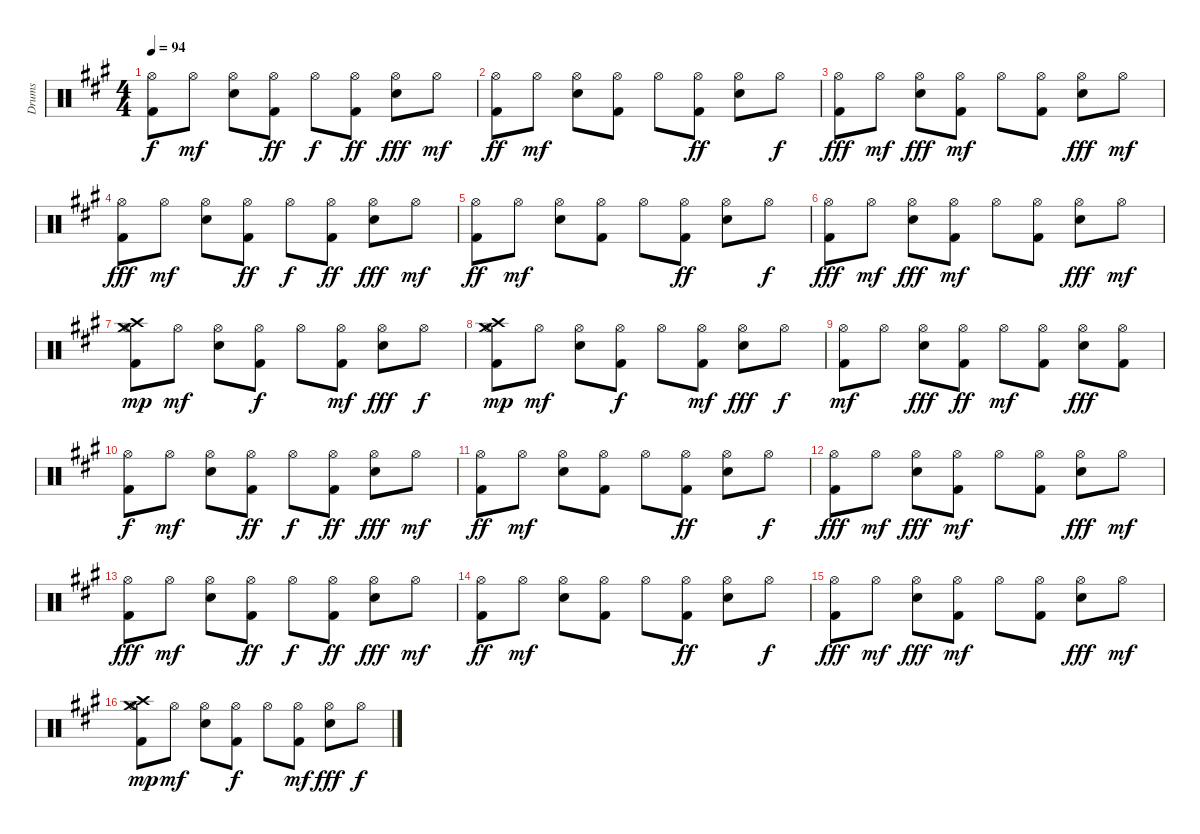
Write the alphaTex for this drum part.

\track ("Drums" "Drums") {instrument percussion}
\staff {score}
\articulation defaults
\ts (4 4)
\tempo 94
\clef neutral
\ks a
("Hi-Hat (open)" "Kick (hit) 2").8{dy f} "Hi-Hat (open)".8{dy mf} ("Electric Snare (hit)" "Hi-Hat (open)").8 ("Kick (hit) 2" "Hi-Hat (open)").8{dy ff} "Hi-Hat (open)".8{dy f} ("Kick (hit) 2" "Hi-Hat (open)").8{dy ff} ("Electric Snare (hit)" "Hi-Hat (open)").8{dy fff} "Hi-Hat (open)".8{dy mf} |
("Kick (hit) 2" "Hi-Hat (open)").8{dy ff} "Hi-Hat (open)".8{dy mf} ("Electric Snare (hit)" "Hi-Hat (open)").8 ("Kick (hit) 2" "Hi-Hat (open)").8 "Hi-Hat (open)".8 ("Kick (hit) 2" "Hi-Hat (open)").8{dy ff} ("Electric Snare (hit)" "Hi-Hat (open)").8 "Hi-Hat (open)".8{dy f} |
("Kick (hit) 2" "Hi-Hat (open)").8{dy fff} "Hi-Hat (open)".8{dy mf} ("Electric Snare (hit)" "Hi-Hat (open)").8{dy fff} ("Kick (hit) 2" "Hi-Hat (open)").8{dy mf} "Hi-Hat (open)".8 ("Kick (hit) 2" "Hi-Hat (open)").8 ("Electric Snare (hit)" "Hi-Hat (open)").8{dy fff} "Hi-Hat (open)".8{dy mf} |
("Kick (hit) 2" "Hi-Hat (open)").8{dy fff} "Hi-Hat (open)".8{dy mf} ("Electric Snare (hit)" "Hi-Hat (open)").8 ("Kick (hit) 2" "Hi-Hat (open)").8{dy ff} "Hi-Hat (open)".8{dy f} ("Kick (hit) 2" "Hi-Hat (open)").8{dy ff} ("Electric Snare (hit)" "Hi-Hat (open)").8{dy fff} "Hi-Hat (open)".8{dy mf} |
("Kick (hit) 2" "Hi-Hat (open)").8{dy ff} "Hi-Hat (open)".8{dy mf} ("Electric Snare (hit)" "Hi-Hat (open)").8 ("Kick (hit) 2" "Hi-Hat (open)").8 "Hi-Hat (open)".8 ("Kick (hit) 2" "Hi-Hat (open)").8{dy ff} ("Electric Snare (hit)" "Hi-Hat (open)").8 "Hi-Hat (open)".8{dy f} |
("Kick (hit) 2" "Hi-Hat (open)").8{dy fff} "Hi-Hat (open)".8{dy mf} ("Electric Snare (hit)" "Hi-Hat (open)").8{dy fff} ("Kick (hit) 2" "Hi-Hat (open)").8{dy mf} "Hi-Hat (open)".8 ("Kick (hit) 2" "Hi-Hat (open)").8 ("Electric Snare (hit)" "Hi-Hat (open)").8{dy fff} "Hi-Hat (open)".8{dy mf} |
("Kick (hit) 2" "Hi-Hat (open)" "Crash high (hit)" "Crash medium (hit)").8{dy mp} "Hi-Hat (open)".8{dy mf} ("Electric Snare (hit)" "Hi-Hat (open)").8 ("Kick (hit) 2" "Hi-Hat (open)").8{dy f} "Hi-Hat (open)".8 ("Kick (hit) 2" "Hi-Hat (open)").8{dy mf} ("Electric Snare (hit)" "Hi-Hat (open)").8{dy fff} "Hi-Hat (open)".8{dy f} |
("Kick (hit) 2" "Hi-Hat (open)" "Crash high (hit)" "Crash medium (hit)").8{dy mp} "Hi-Hat (open)".8{dy mf} ("Electric Snare (hit)" "Hi-Hat (open)").8 ("Kick (hit) 2" "Hi-Hat (open)").8{dy f} "Hi-Hat (open)".8 ("Kick (hit) 2" "Hi-Hat (open)").8{dy mf} ("Electric Snare (hit)" "Hi-Hat (open)").8{dy fff} "Hi-Hat (open)".8{dy f} |
("Kick (hit) 2" "Hi-Hat (open)").8{dy mf} "Hi-Hat (open)".8 ("Electric Snare (hit)" "Hi-Hat (open)").8{dy fff} ("Kick (hit) 2" "Hi-Hat (open)").8{dy ff} "Hi-Hat (open)".8{dy mf} ("Kick (hit) 2" "Hi-Hat (open)").8 ("Electric Snare (hit)" "Hi-Hat (open)").8{dy fff} ("Kick (hit) 2" "Hi-Hat (open)").8 |
("Hi-Hat (open)" "Kick (hit) 2").8{dy f} "Hi-Hat (open)".8{dy mf} ("Electric Snare (hit)" "Hi-Hat (open)").8 ("Kick (hit) 2" "Hi-Hat (open)").8{dy ff} "Hi-Hat (open)".8{dy f} ("Kick (hit) 2" "Hi-Hat (open)").8{dy ff} ("Electric Snare (hit)" "Hi-Hat (open)").8{dy fff} "Hi-Hat (open)".8{dy mf} |
("Kick (hit) 2" "Hi-Hat (open)").8{dy ff} "Hi-Hat (open)".8{dy mf} ("Electric Snare (hit)" "Hi-Hat (open)").8 ("Kick (hit) 2" "Hi-Hat (open)").8 "Hi-Hat (open)".8 ("Kick (hit) 2" "Hi-Hat (open)").8{dy ff} ("Electric Snare (hit)" "Hi-Hat (open)").8 "Hi-Hat (open)".8{dy f} |
("Kick (hit) 2" "Hi-Hat (open)").8{dy fff} "Hi-Hat (open)".8{dy mf} ("Electric Snare (hit)" "Hi-Hat (open)").8{dy fff} ("Kick (hit) 2" "Hi-Hat (open)").8{dy mf} "Hi-Hat (open)".8 ("Kick (hit) 2" "Hi-Hat (open)").8 ("Electric Snare (hit)" "Hi-Hat (open)").8{dy fff} "Hi-Hat (open)".8{dy mf} |
("Kick (hit) 2" "Hi-Hat (open)").8{dy fff} "Hi-Hat (open)".8{dy mf} ("Electric Snare (hit)" "Hi-Hat (open)").8 ("Kick (hit) 2" "Hi-Hat (open)").8{dy ff} "Hi-Hat (open)".8{dy f} ("Kick (hit) 2" "Hi-Hat (open)").8{dy ff} ("Electric Snare (hit)" "Hi-Hat (open)").8{dy fff} "Hi-Hat (open)".8{dy mf} |
("Kick (hit) 2" "Hi-Hat (open)").8{dy ff} "Hi-Hat (open)".8{dy mf} ("Electric Snare (hit)" "Hi-Hat (open)").8 ("Kick (hit) 2" "Hi-Hat (open)").8 "Hi-Hat (open)".8 ("Kick (hit) 2" "Hi-Hat (open)").8{dy ff} ("Electric Snare (hit)" "Hi-Hat (open)").8 "Hi-Hat (open)".8{dy f} |
("Kick (hit) 2" "Hi-Hat (open)").8{dy fff} "Hi-Hat (open)".8{dy mf} ("Electric Snare (hit)" "Hi-Hat (open)").8{dy fff} ("Kick (hit) 2" "Hi-Hat (open)").8{dy mf} "Hi-Hat (open)".8 ("Kick (hit) 2" "Hi-Hat (open)").8 ("Electric Snare (hit)" "Hi-Hat (open)").8{dy fff} "Hi-Hat (open)".8{dy mf} |
("Kick (hit) 2" "Hi-Hat (open)" "Crash high (hit)" "Crash medium (hit)").8{dy mp} "Hi-Hat (open)".8{dy mf} ("Electric Snare (hit)" "Hi-Hat (open)").8 ("Kick (hit) 2" "Hi-Hat (open)").8{dy f} "Hi-Hat (open)".8 ("Kick (hit) 2" "Hi-Hat (open)").8{dy mf} ("Electric Snare (hit)" "Hi-Hat (open)").8{dy fff} "Hi-Hat (open)".8{dy f}
